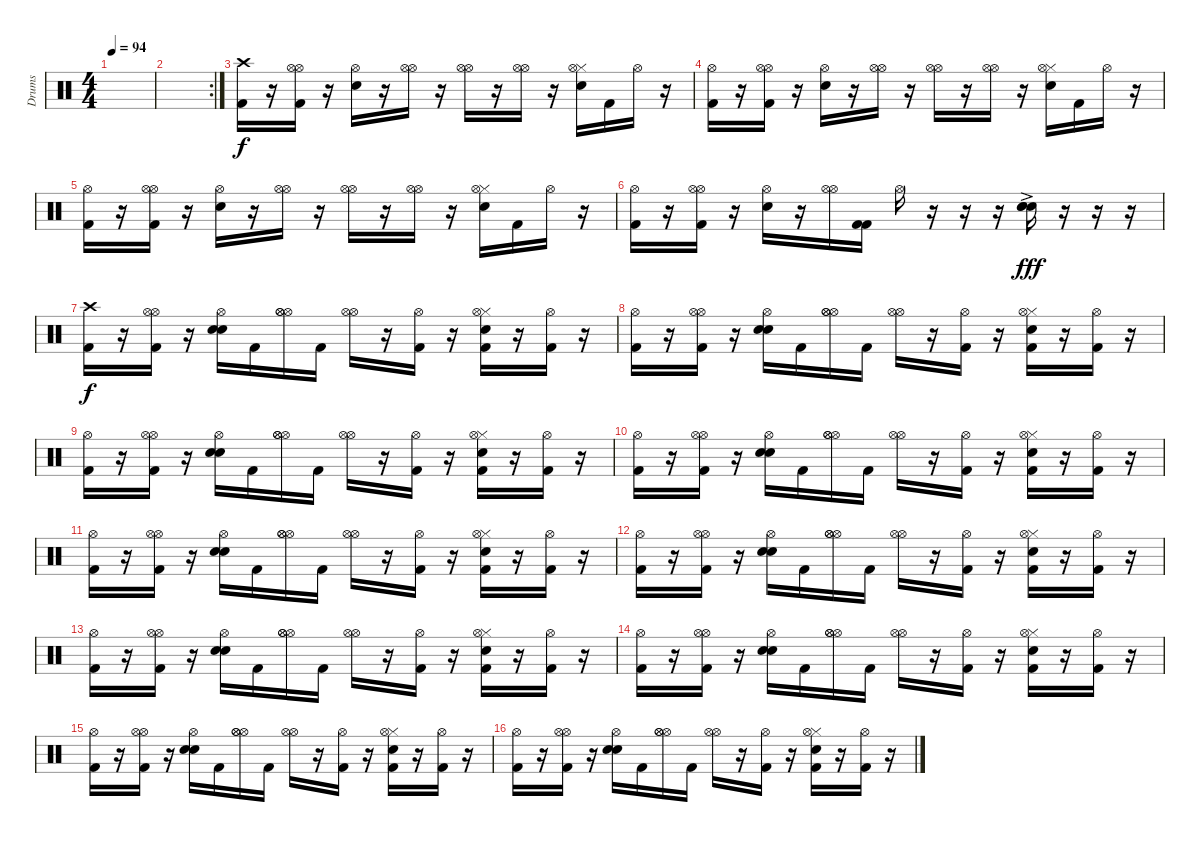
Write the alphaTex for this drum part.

\track ("Drums" "Drums") {instrument percussion}
\staff {score}
\articulation defaults
\ts (4 4)
\tempo 94
\clef neutral
\ks c
|
\rc 2
|
("Crash high (hit)" "Kick (hit) 2").16 r.16 ("Hi-Hat (open)" "Hi-Hat (open)" "Kick (hit) 2").16 r.16 ("Hi-Hat (open)" "Snare (hit) 2").16 r.16 ("Hi-Hat (open)" "Hi-Hat (open)").16 r.16 ("Hi-Hat (open)" "Hi-Hat (open)").16 r.16 ("Hi-Hat (open)" "Hi-Hat (open)").16 r.16 ("Hi-Hat (closed)" "Snare (hit) 2" "Hi-Hat (open)").16 "Kick (hit) 2".16 "Hi-Hat (open)".16 r.16 |
("Hi-Hat (open)" "Kick (hit) 2").16 r.16 ("Hi-Hat (open)" "Hi-Hat (open)" "Kick (hit) 2").16 r.16 ("Hi-Hat (open)" "Snare (hit) 2").16 r.16 ("Hi-Hat (open)" "Hi-Hat (open)").16 r.16 ("Hi-Hat (open)" "Hi-Hat (open)").16 r.16 ("Hi-Hat (open)" "Hi-Hat (open)").16 r.16 ("Hi-Hat (closed)" "Snare (hit) 2" "Hi-Hat (open)").16 "Kick (hit) 2".16 "Hi-Hat (open)".16 r.16 |
("Hi-Hat (open)" "Kick (hit) 2").16 r.16 ("Hi-Hat (open)" "Hi-Hat (open)" "Kick (hit) 2").16 r.16 ("Hi-Hat (open)" "Snare (hit) 2").16 r.16 ("Hi-Hat (open)" "Hi-Hat (open)").16 r.16 ("Hi-Hat (open)" "Hi-Hat (open)").16 r.16 ("Hi-Hat (open)" "Hi-Hat (open)").16 r.16 ("Hi-Hat (closed)" "Snare (hit) 2" "Hi-Hat (open)").16 "Kick (hit) 2".16 "Hi-Hat (open)".16 r.16 |
("Hi-Hat (open)" "Kick (hit) 2").16 r.16 ("Hi-Hat (open)" "Hi-Hat (open)" "Kick (hit) 2").16 r.16 ("Hi-Hat (open)" "Snare (hit) 2").16 r.16 ("Hi-Hat (open)" "Hi-Hat (open)").16 ("Kick (hit) 2" "Kick (hit) 2").16 "Hi-Hat (open)".16 r.16 r.16 r.16 ("Snare (hit) 2"{ac} "Snare (hit) 2"{ac} "Snare (hit) 2"{ac}).16{dy fff} r.16 r.16 r.16 |
("Crash high (hit)" "Kick (hit) 2").16{dy f volume 13} r.16 ("Hi-Hat (open)" "Hi-Hat (open)" "Kick (hit) 2").16 r.16 ("Hi-Hat (open)" "Snare (hit) 2" "Snare (hit) 2").16 "Kick (hit) 2".16 ("Hi-Hat (open)" "Hi-Hat (open)" "Hi-Hat (open)").16 "Kick (hit) 2".16 ("Hi-Hat (open)" "Hi-Hat (open)").16 r.16 ("Hi-Hat (open)" "Kick (hit) 2").16 r.16 ("Hi-Hat (closed)" "Snare (hit) 2" "Hi-Hat (open)" "Kick (hit) 2").16 r.16 ("Hi-Hat (open)" "Kick (hit) 2").16 r.16 |
("Hi-Hat (open)" "Kick (hit) 2").16 r.16 ("Hi-Hat (open)" "Hi-Hat (open)" "Kick (hit) 2").16 r.16 ("Hi-Hat (open)" "Snare (hit) 2" "Snare (hit) 2").16 "Kick (hit) 2".16 ("Hi-Hat (open)" "Hi-Hat (open)" "Hi-Hat (open)").16 "Kick (hit) 2".16 ("Hi-Hat (open)" "Hi-Hat (open)").16 r.16 ("Hi-Hat (open)" "Kick (hit) 2").16 r.16 ("Hi-Hat (closed)" "Snare (hit) 2" "Hi-Hat (open)" "Kick (hit) 2").16 r.16 ("Hi-Hat (open)" "Kick (hit) 2").16 r.16 |
("Hi-Hat (open)" "Kick (hit) 2").16 r.16 ("Hi-Hat (open)" "Hi-Hat (open)" "Kick (hit) 2").16 r.16 ("Hi-Hat (open)" "Snare (hit) 2" "Snare (hit) 2").16 "Kick (hit) 2".16 ("Hi-Hat (open)" "Hi-Hat (open)" "Hi-Hat (open)").16 "Kick (hit) 2".16 ("Hi-Hat (open)" "Hi-Hat (open)").16 r.16 ("Hi-Hat (open)" "Kick (hit) 2").16 r.16 ("Hi-Hat (closed)" "Snare (hit) 2" "Hi-Hat (open)" "Kick (hit) 2").16 r.16 ("Hi-Hat (open)" "Kick (hit) 2").16 r.16 |
("Hi-Hat (open)" "Kick (hit) 2").16 r.16 ("Hi-Hat (open)" "Hi-Hat (open)" "Kick (hit) 2").16 r.16 ("Hi-Hat (open)" "Snare (hit) 2" "Snare (hit) 2").16 "Kick (hit) 2".16 ("Hi-Hat (open)" "Hi-Hat (open)" "Hi-Hat (open)").16 "Kick (hit) 2".16 ("Hi-Hat (open)" "Hi-Hat (open)").16 r.16 ("Hi-Hat (open)" "Kick (hit) 2").16 r.16 ("Hi-Hat (closed)" "Snare (hit) 2" "Hi-Hat (open)" "Kick (hit) 2").16 r.16 ("Hi-Hat (open)" "Kick (hit) 2").16 r.16 |
("Hi-Hat (open)" "Kick (hit) 2").16 r.16 ("Hi-Hat (open)" "Hi-Hat (open)" "Kick (hit) 2").16 r.16 ("Hi-Hat (open)" "Snare (hit) 2" "Snare (hit) 2").16 "Kick (hit) 2".16 ("Hi-Hat (open)" "Hi-Hat (open)" "Hi-Hat (open)").16 "Kick (hit) 2".16 ("Hi-Hat (open)" "Hi-Hat (open)").16 r.16 ("Hi-Hat (open)" "Kick (hit) 2").16 r.16 ("Hi-Hat (closed)" "Snare (hit) 2" "Hi-Hat (open)" "Kick (hit) 2").16 r.16 ("Hi-Hat (open)" "Kick (hit) 2").16 r.16 |
("Hi-Hat (open)" "Kick (hit) 2").16 r.16 ("Hi-Hat (open)" "Hi-Hat (open)" "Kick (hit) 2").16 r.16 ("Hi-Hat (open)" "Snare (hit) 2" "Snare (hit) 2").16 "Kick (hit) 2".16 ("Hi-Hat (open)" "Hi-Hat (open)" "Hi-Hat (open)").16 "Kick (hit) 2".16 ("Hi-Hat (open)" "Hi-Hat (open)").16 r.16 ("Hi-Hat (open)" "Kick (hit) 2").16 r.16 ("Hi-Hat (closed)" "Snare (hit) 2" "Hi-Hat (open)" "Kick (hit) 2").16 r.16 ("Hi-Hat (open)" "Kick (hit) 2").16 r.16 |
("Hi-Hat (open)" "Kick (hit) 2").16 r.16 ("Hi-Hat (open)" "Hi-Hat (open)" "Kick (hit) 2").16 r.16 ("Hi-Hat (open)" "Snare (hit) 2" "Snare (hit) 2").16 "Kick (hit) 2".16 ("Hi-Hat (open)" "Hi-Hat (open)" "Hi-Hat (open)").16 "Kick (hit) 2".16 ("Hi-Hat (open)" "Hi-Hat (open)").16 r.16 ("Hi-Hat (open)" "Kick (hit) 2").16 r.16 ("Hi-Hat (closed)" "Snare (hit) 2" "Hi-Hat (open)" "Kick (hit) 2").16 r.16 ("Hi-Hat (open)" "Kick (hit) 2").16 r.16 |
("Hi-Hat (open)" "Kick (hit) 2").16 r.16 ("Hi-Hat (open)" "Hi-Hat (open)" "Kick (hit) 2").16 r.16 ("Hi-Hat (open)" "Snare (hit) 2" "Snare (hit) 2").16 "Kick (hit) 2".16 ("Hi-Hat (open)" "Hi-Hat (open)" "Hi-Hat (open)").16 "Kick (hit) 2".16 ("Hi-Hat (open)" "Hi-Hat (open)").16 r.16 ("Hi-Hat (open)" "Kick (hit) 2").16 r.16 ("Hi-Hat (closed)" "Snare (hit) 2" "Hi-Hat (open)" "Kick (hit) 2").16 r.16 ("Hi-Hat (open)" "Kick (hit) 2").16 r.16 |
("Hi-Hat (open)" "Kick (hit) 2").16 r.16 ("Hi-Hat (open)" "Hi-Hat (open)" "Kick (hit) 2").16 r.16 ("Hi-Hat (open)" "Snare (hit) 2" "Snare (hit) 2").16 "Kick (hit) 2".16 ("Hi-Hat (open)" "Hi-Hat (open)" "Hi-Hat (open)").16 "Kick (hit) 2".16 ("Hi-Hat (open)" "Hi-Hat (open)").16 r.16 ("Hi-Hat (open)" "Kick (hit) 2").16 r.16 ("Hi-Hat (closed)" "Snare (hit) 2" "Hi-Hat (open)" "Kick (hit) 2").16 r.16 ("Hi-Hat (open)" "Kick (hit) 2").16 r.16 |
("Hi-Hat (open)" "Kick (hit) 2").16 r.16 ("Hi-Hat (open)" "Hi-Hat (open)" "Kick (hit) 2").16 r.16 ("Hi-Hat (open)" "Snare (hit) 2" "Snare (hit) 2").16 "Kick (hit) 2".16 ("Hi-Hat (open)" "Hi-Hat (open)" "Hi-Hat (open)").16 "Kick (hit) 2".16 ("Hi-Hat (open)" "Hi-Hat (open)").16 r.16 ("Hi-Hat (open)" "Kick (hit) 2").16 r.16 ("Hi-Hat (closed)" "Snare (hit) 2" "Hi-Hat (open)" "Kick (hit) 2").16 r.16 ("Hi-Hat (open)" "Kick (hit) 2").16 r.16
